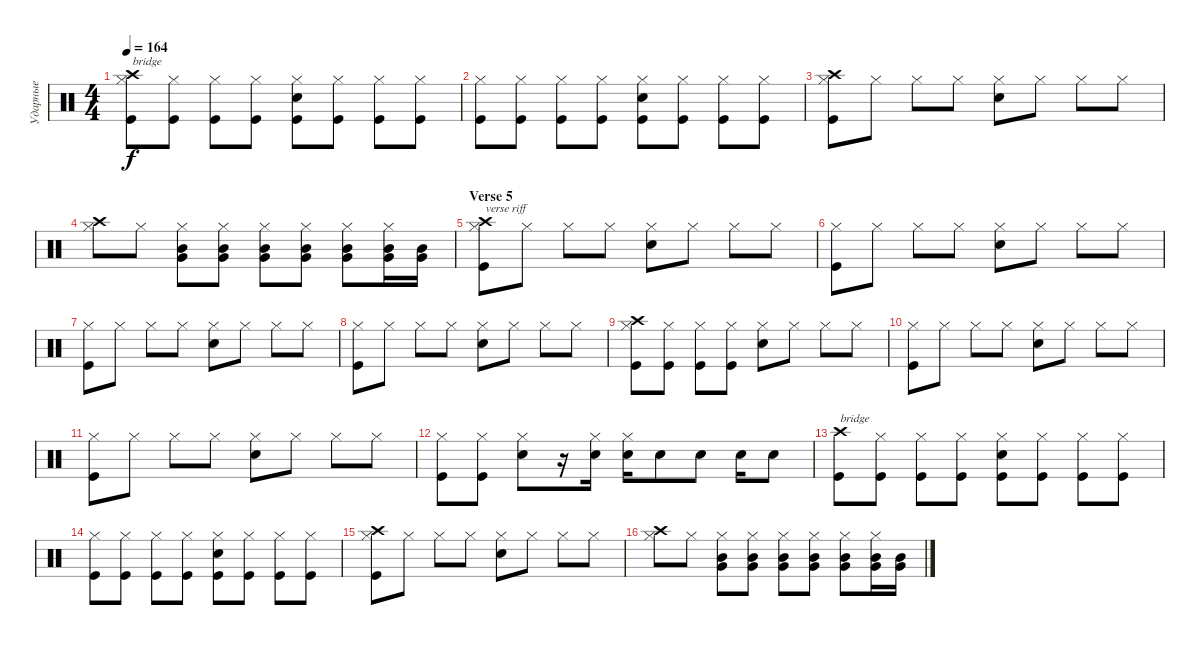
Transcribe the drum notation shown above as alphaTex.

\track ("Ударные" "Ударные") {instrument percussion}
\staff {score}
\articulation defaults
\ts (4 4)
\tempo 164
\clef neutral
\ks c
("Hi-Hat (closed)" "Crash high (hit)" "Kick (hit)").8{txt "bridge" dy f} ("Hi-Hat (closed)" "Kick (hit)").8 ("Hi-Hat (closed)" "Kick (hit)").8 ("Hi-Hat (closed)" "Kick (hit)").8 ("Hi-Hat (closed)" "Kick (hit)" "Snare (hit) 2").8 ("Hi-Hat (closed)" "Kick (hit)").8 ("Hi-Hat (closed)" "Kick (hit)").8 ("Hi-Hat (closed)" "Kick (hit)").8 |
("Hi-Hat (closed)" "Kick (hit)").8 ("Hi-Hat (closed)" "Kick (hit)").8 ("Hi-Hat (closed)" "Kick (hit)").8 ("Hi-Hat (closed)" "Kick (hit)").8 ("Hi-Hat (closed)" "Kick (hit)" "Snare (hit) 2").8 ("Hi-Hat (closed)" "Kick (hit)").8 ("Hi-Hat (closed)" "Kick (hit)").8 ("Hi-Hat (closed)" "Kick (hit)").8 |
("Hi-Hat (closed)" "Crash high (hit)" "Kick (hit)").8 "Hi-Hat (closed)".8 "Hi-Hat (closed)".8 "Hi-Hat (closed)".8 ("Hi-Hat (closed)" "Snare (hit) 2").8 "Hi-Hat (closed)".8 "Hi-Hat (closed)".8 "Hi-Hat (closed)".8 |
("Hi-Hat (closed)" "Crash high (hit)").8 "Hi-Hat (closed)".8 ("Hi-Hat (closed)" "Mid Tom (hit)" "Very Low Tom (hit)").8 ("Hi-Hat (closed)" "Mid Tom (hit)" "Very Low Tom (hit)").8 ("Hi-Hat (closed)" "Mid Tom (hit)" "Very Low Tom (hit)").8 ("Hi-Hat (closed)" "Mid Tom (hit)" "Very Low Tom (hit)").8 ("Hi-Hat (closed)" "Mid Tom (hit)" "Very Low Tom (hit)").8 ("Hi-Hat (closed)" "Mid Tom (hit)" "Very Low Tom (hit)").16 ("Very Low Tom (hit)" "Mid Tom (hit)").16 |
\section ("" "Verse 5")
("Hi-Hat (closed)" "Crash high (hit)" "Kick (hit)").8{txt "verse riff"} "Hi-Hat (closed)".8 "Hi-Hat (closed)".8 "Hi-Hat (closed)".8 ("Hi-Hat (closed)" "Snare (hit) 2").8 "Hi-Hat (closed)".8 "Hi-Hat (closed)".8 "Hi-Hat (closed)".8 |
("Hi-Hat (closed)" "Kick (hit)").8 "Hi-Hat (closed)".8 "Hi-Hat (closed)".8 "Hi-Hat (closed)".8 ("Hi-Hat (closed)" "Snare (hit) 2").8 "Hi-Hat (closed)".8 "Hi-Hat (closed)".8 "Hi-Hat (closed)".8 |
("Hi-Hat (closed)" "Kick (hit)").8 "Hi-Hat (closed)".8 "Hi-Hat (closed)".8 "Hi-Hat (closed)".8 ("Hi-Hat (closed)" "Snare (hit) 2").8 "Hi-Hat (closed)".8 "Hi-Hat (closed)".8 "Hi-Hat (closed)".8 |
("Hi-Hat (closed)" "Kick (hit)").8 "Hi-Hat (closed)".8 "Hi-Hat (closed)".8 "Hi-Hat (closed)".8 ("Hi-Hat (closed)" "Snare (hit) 2").8 "Hi-Hat (closed)".8 "Hi-Hat (closed)".8 "Hi-Hat (closed)".8 |
("Hi-Hat (closed)" "Crash high (hit)" "Kick (hit)").8 ("Hi-Hat (closed)" "Kick (hit)").8 ("Hi-Hat (closed)" "Kick (hit)").8 ("Hi-Hat (closed)" "Kick (hit)").8 ("Hi-Hat (closed)" "Snare (hit) 2").8 "Hi-Hat (closed)".8 "Hi-Hat (closed)".8 "Hi-Hat (closed)".8 |
("Hi-Hat (closed)" "Kick (hit)").8 "Hi-Hat (closed)".8 "Hi-Hat (closed)".8 "Hi-Hat (closed)".8 ("Hi-Hat (closed)" "Snare (hit) 2").8 "Hi-Hat (closed)".8 "Hi-Hat (closed)".8 "Hi-Hat (closed)".8 |
("Hi-Hat (closed)" "Kick (hit)").8 "Hi-Hat (closed)".8 "Hi-Hat (closed)".8 "Hi-Hat (closed)".8 ("Hi-Hat (closed)" "Snare (hit) 2").8 "Hi-Hat (closed)".8 "Hi-Hat (closed)".8 "Hi-Hat (closed)".8 |
("Hi-Hat (closed)" "Kick (hit)").8 ("Hi-Hat (closed)" "Kick (hit)").8 ("Hi-Hat (closed)" "Snare (hit) 2").8 r.16 ("Hi-Hat (closed)" "Snare (hit) 2").16 ("Hi-Hat (closed)" "Snare (hit) 2").16 "Snare (hit) 2".8 "Snare (hit) 2".8 "Snare (hit) 2".16 "Snare (hit) 2".8 |
("Crash high (hit)" "Kick (hit)").8{txt "bridge"} ("Hi-Hat (closed)" "Kick (hit)").8 ("Hi-Hat (closed)" "Kick (hit)").8 ("Hi-Hat (closed)" "Kick (hit)").8 ("Hi-Hat (closed)" "Kick (hit)" "Snare (hit) 2").8 ("Hi-Hat (closed)" "Kick (hit)").8 ("Hi-Hat (closed)" "Kick (hit)").8 ("Hi-Hat (closed)" "Kick (hit)").8 |
("Hi-Hat (closed)" "Kick (hit)").8 ("Hi-Hat (closed)" "Kick (hit)").8 ("Hi-Hat (closed)" "Kick (hit)").8 ("Hi-Hat (closed)" "Kick (hit)").8 ("Hi-Hat (closed)" "Kick (hit)" "Snare (hit) 2").8 ("Hi-Hat (closed)" "Kick (hit)").8 ("Hi-Hat (closed)" "Kick (hit)").8 ("Hi-Hat (closed)" "Kick (hit)").8 |
("Hi-Hat (closed)" "Crash high (hit)" "Kick (hit)").8 "Hi-Hat (closed)".8 "Hi-Hat (closed)".8 "Hi-Hat (closed)".8 ("Hi-Hat (closed)" "Snare (hit) 2").8 "Hi-Hat (closed)".8 "Hi-Hat (closed)".8 "Hi-Hat (closed)".8 |
("Hi-Hat (closed)" "Crash high (hit)").8 "Hi-Hat (closed)".8 ("Hi-Hat (closed)" "Mid Tom (hit)" "Very Low Tom (hit)").8 ("Hi-Hat (closed)" "Mid Tom (hit)" "Very Low Tom (hit)").8 ("Hi-Hat (closed)" "Mid Tom (hit)" "Very Low Tom (hit)").8 ("Hi-Hat (closed)" "Mid Tom (hit)" "Very Low Tom (hit)").8 ("Hi-Hat (closed)" "Mid Tom (hit)" "Very Low Tom (hit)").8 ("Hi-Hat (closed)" "Mid Tom (hit)" "Very Low Tom (hit)").16 ("Very Low Tom (hit)" "Mid Tom (hit)").16
